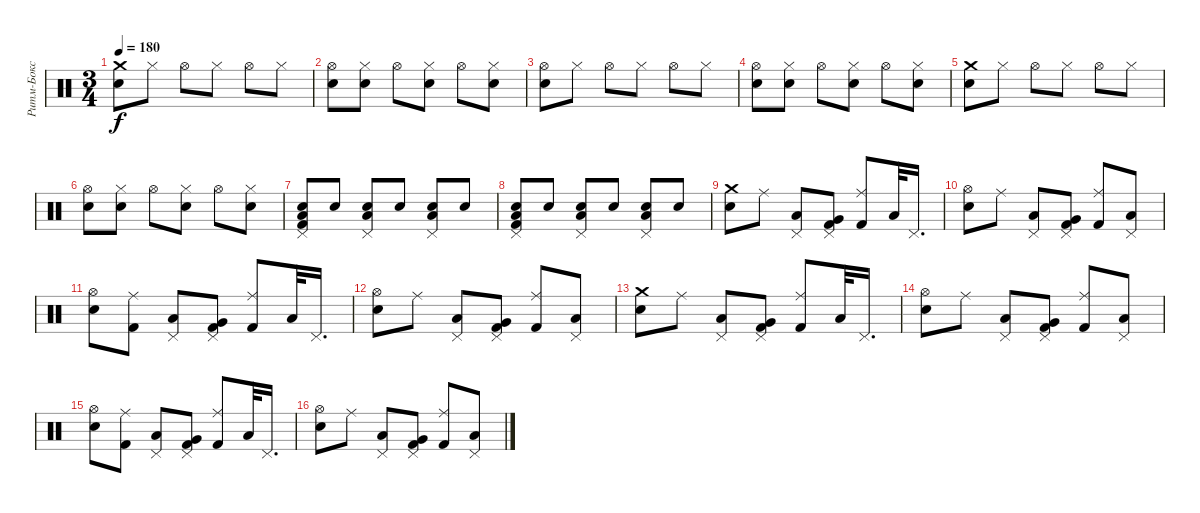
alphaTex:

\track ("Ритм-Бокс" "Ритм-Бокс") {instrument percussion}
\staff {score}
\articulation defaults
\ts (3 4)
\tempo 180
\clef neutral
\ks c
("Crash medium (hit)" "Electric Snare (hit)").8{dy f} "Hi-Hat (closed)".8 "Hi-Hat (open)".8 "Hi-Hat (closed)".8 "Hi-Hat (open)".8 "Hi-Hat (closed)".8 |
("Hi-Hat (open)" "Electric Snare (hit)").8 ("Hi-Hat (closed)" "Electric Snare (hit)").8 "Hi-Hat (open)".8 ("Hi-Hat (closed)" "Electric Snare (hit)").8 "Hi-Hat (open)".8 ("Hi-Hat (closed)" "Electric Snare (hit)").8 |
("Hi-Hat (open)" "Electric Snare (hit)").8 "Hi-Hat (closed)".8 "Hi-Hat (open)".8 "Hi-Hat (closed)".8 "Hi-Hat (open)".8 "Hi-Hat (closed)".8 |
("Hi-Hat (open)" "Electric Snare (hit)").8 ("Hi-Hat (closed)" "Electric Snare (hit)").8 "Hi-Hat (open)".8 ("Hi-Hat (closed)" "Electric Snare (hit)").8 "Hi-Hat (open)".8 ("Hi-Hat (closed)" "Electric Snare (hit)").8 |
("Crash medium (hit)" "Electric Snare (hit)").8 "Hi-Hat (closed)".8 "Hi-Hat (open)".8 "Hi-Hat (closed)".8 "Hi-Hat (open)".8 "Hi-Hat (closed)".8 |
("Hi-Hat (open)" "Electric Snare (hit)").8 ("Hi-Hat (closed)" "Electric Snare (hit)").8 "Hi-Hat (open)".8 ("Hi-Hat (closed)" "Electric Snare (hit)").8 "Hi-Hat (open)".8 ("Hi-Hat (closed)" "Electric Snare (hit)").8 |
("Pedal Hi-Hat (hit)" "Snare (hit) 2" "Low Floor Tom (hit)" "Kick (hit) 2").8 "Snare (hit) 2".8 ("Pedal Hi-Hat (hit)" "Snare (hit) 2" "Low Floor Tom (hit)").8 "Snare (hit) 2".8 ("Pedal Hi-Hat (hit)" "Snare (hit) 2" "Low Floor Tom (hit)").8 "Snare (hit) 2".8 |
("Pedal Hi-Hat (hit)" "Snare (hit) 2" "Low Floor Tom (hit)" "Kick (hit) 2").8 "Snare (hit) 2".8 ("Pedal Hi-Hat (hit)" "Snare (hit) 2" "Low Floor Tom (hit)").8 "Snare (hit) 2".8 ("Pedal Hi-Hat (hit)" "Snare (hit) 2" "Low Floor Tom (hit)").8 "Snare (hit) 2".8 |
("Crash medium (hit)" "Snare (hit) 2").8 "Ride (middle)".8 ("Pedal Hi-Hat (hit)" "Low Floor Tom (hit)").8 ("Pedal Hi-Hat (hit)" "Very Low Tom (hit)" "Kick (hit) 2").8 ("Ride (middle)" "Kick (hit) 2").8 "Low Floor Tom (hit)".32 "Pedal Hi-Hat (hit)".16{d} |
("Hi-Hat (open)" "Snare (hit) 2").8 "Ride (middle)".8 ("Pedal Hi-Hat (hit)" "Low Floor Tom (hit)").8 ("Pedal Hi-Hat (hit)" "Very Low Tom (hit)" "Kick (hit) 2").8 ("Ride (middle)" "Kick (hit) 2").8 ("Pedal Hi-Hat (hit)" "Low Floor Tom (hit)").8 |
("Hi-Hat (open)" "Snare (hit) 2").8 ("Ride (middle)" "Kick (hit) 2").8 ("Pedal Hi-Hat (hit)" "Low Floor Tom (hit)").8 ("Pedal Hi-Hat (hit)" "Very Low Tom (hit)" "Kick (hit) 2").8 ("Ride (middle)" "Kick (hit) 2").8 "Low Floor Tom (hit)".32 "Pedal Hi-Hat (hit)".16{d} |
("Hi-Hat (open)" "Snare (hit) 2").8 "Ride (middle)".8 ("Pedal Hi-Hat (hit)" "Low Floor Tom (hit)").8 ("Pedal Hi-Hat (hit)" "Very Low Tom (hit)" "Kick (hit) 2").8 ("Ride (middle)" "Kick (hit) 2").8 ("Pedal Hi-Hat (hit)" "Low Floor Tom (hit)").8 |
("Crash medium (hit)" "Snare (hit) 2").8 "Ride (middle)".8 ("Pedal Hi-Hat (hit)" "Low Floor Tom (hit)").8 ("Pedal Hi-Hat (hit)" "Very Low Tom (hit)" "Kick (hit) 2").8 ("Ride (middle)" "Kick (hit) 2").8 "Low Floor Tom (hit)".32 "Pedal Hi-Hat (hit)".16{d} |
("Hi-Hat (open)" "Snare (hit) 2").8 "Ride (middle)".8 ("Pedal Hi-Hat (hit)" "Low Floor Tom (hit)").8 ("Pedal Hi-Hat (hit)" "Very Low Tom (hit)" "Kick (hit) 2").8 ("Ride (middle)" "Kick (hit) 2").8 ("Pedal Hi-Hat (hit)" "Low Floor Tom (hit)").8 |
("Hi-Hat (open)" "Snare (hit) 2").8 ("Ride (middle)" "Kick (hit) 2").8 ("Pedal Hi-Hat (hit)" "Low Floor Tom (hit)").8 ("Pedal Hi-Hat (hit)" "Very Low Tom (hit)" "Kick (hit) 2").8 ("Ride (middle)" "Kick (hit) 2").8 "Low Floor Tom (hit)".32 "Pedal Hi-Hat (hit)".16{d} |
("Hi-Hat (open)" "Snare (hit) 2").8 "Ride (middle)".8 ("Pedal Hi-Hat (hit)" "Low Floor Tom (hit)").8 ("Pedal Hi-Hat (hit)" "Very Low Tom (hit)" "Kick (hit) 2").8 ("Ride (middle)" "Kick (hit) 2").8 ("Pedal Hi-Hat (hit)" "Low Floor Tom (hit)").8
